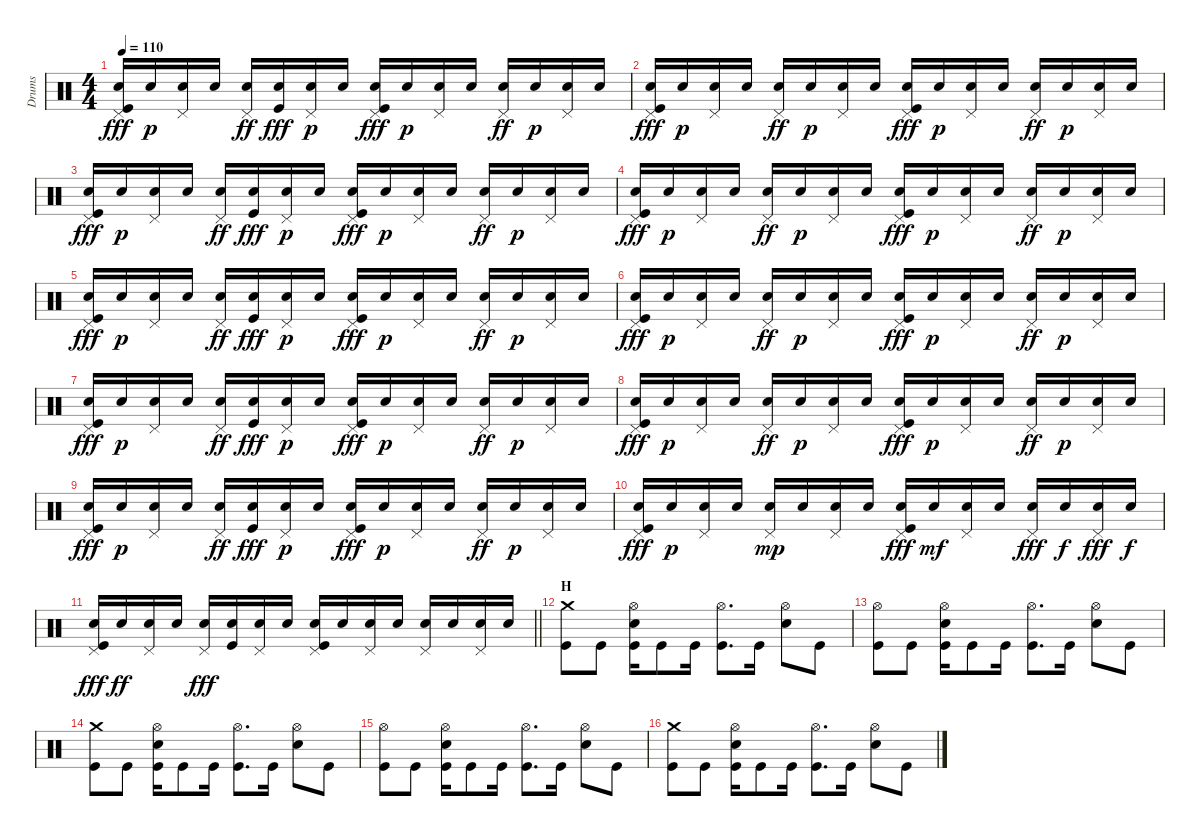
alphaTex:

\track ("Drums" "Drums") {instrument percussion}
\staff {score}
\articulation defaults
\ts (4 4)
\tempo 110
\clef neutral
\ks c
("Pedal Hi-Hat (hit)" "Electric Snare (hit)" "Kick (hit)").16{dy fff} "Electric Snare (hit)".16{dy p} ("Pedal Hi-Hat (hit)" "Electric Snare (hit)").16 "Electric Snare (hit)".16 ("Pedal Hi-Hat (hit)" "Electric Snare (hit)").16{dy ff} ("Electric Snare (hit)" "Kick (hit)").16{dy fff} ("Pedal Hi-Hat (hit)" "Electric Snare (hit)").16{dy p} "Electric Snare (hit)".16 ("Pedal Hi-Hat (hit)" "Electric Snare (hit)" "Kick (hit)").16{dy fff} "Electric Snare (hit)".16{dy p} ("Pedal Hi-Hat (hit)" "Electric Snare (hit)").16 "Electric Snare (hit)".16 ("Pedal Hi-Hat (hit)" "Electric Snare (hit)").16{dy ff} "Electric Snare (hit)".16{dy p} ("Pedal Hi-Hat (hit)" "Electric Snare (hit)").16 "Electric Snare (hit)".16 |
("Pedal Hi-Hat (hit)" "Electric Snare (hit)" "Kick (hit)").16{dy fff} "Electric Snare (hit)".16{dy p} ("Pedal Hi-Hat (hit)" "Electric Snare (hit)").16 "Electric Snare (hit)".16 ("Pedal Hi-Hat (hit)" "Electric Snare (hit)").16{dy ff} "Electric Snare (hit)".16{dy p} ("Pedal Hi-Hat (hit)" "Electric Snare (hit)").16 "Electric Snare (hit)".16 ("Pedal Hi-Hat (hit)" "Electric Snare (hit)" "Kick (hit)").16{dy fff} "Electric Snare (hit)".16{dy p} ("Pedal Hi-Hat (hit)" "Electric Snare (hit)").16 "Electric Snare (hit)".16 ("Pedal Hi-Hat (hit)" "Electric Snare (hit)").16{dy ff} "Electric Snare (hit)".16{dy p} ("Pedal Hi-Hat (hit)" "Electric Snare (hit)").16 "Electric Snare (hit)".16 |
("Pedal Hi-Hat (hit)" "Electric Snare (hit)" "Kick (hit)").16{dy fff} "Electric Snare (hit)".16{dy p} ("Pedal Hi-Hat (hit)" "Electric Snare (hit)").16 "Electric Snare (hit)".16 ("Pedal Hi-Hat (hit)" "Electric Snare (hit)").16{dy ff} ("Electric Snare (hit)" "Kick (hit)").16{dy fff} ("Pedal Hi-Hat (hit)" "Electric Snare (hit)").16{dy p} "Electric Snare (hit)".16 ("Pedal Hi-Hat (hit)" "Electric Snare (hit)" "Kick (hit)").16{dy fff} "Electric Snare (hit)".16{dy p} ("Pedal Hi-Hat (hit)" "Electric Snare (hit)").16 "Electric Snare (hit)".16 ("Pedal Hi-Hat (hit)" "Electric Snare (hit)").16{dy ff} "Electric Snare (hit)".16{dy p} ("Pedal Hi-Hat (hit)" "Electric Snare (hit)").16 "Electric Snare (hit)".16 |
("Pedal Hi-Hat (hit)" "Electric Snare (hit)" "Kick (hit)").16{dy fff} "Electric Snare (hit)".16{dy p} ("Pedal Hi-Hat (hit)" "Electric Snare (hit)").16 "Electric Snare (hit)".16 ("Pedal Hi-Hat (hit)" "Electric Snare (hit)").16{dy ff} "Electric Snare (hit)".16{dy p} ("Pedal Hi-Hat (hit)" "Electric Snare (hit)").16 "Electric Snare (hit)".16 ("Pedal Hi-Hat (hit)" "Electric Snare (hit)" "Kick (hit)").16{dy fff} "Electric Snare (hit)".16{dy p} ("Pedal Hi-Hat (hit)" "Electric Snare (hit)").16 "Electric Snare (hit)".16 ("Pedal Hi-Hat (hit)" "Electric Snare (hit)").16{dy ff} "Electric Snare (hit)".16{dy p} ("Pedal Hi-Hat (hit)" "Electric Snare (hit)").16 "Electric Snare (hit)".16 |
("Pedal Hi-Hat (hit)" "Electric Snare (hit)" "Kick (hit)").16{dy fff} "Electric Snare (hit)".16{dy p} ("Pedal Hi-Hat (hit)" "Electric Snare (hit)").16 "Electric Snare (hit)".16 ("Pedal Hi-Hat (hit)" "Electric Snare (hit)").16{dy ff} ("Electric Snare (hit)" "Kick (hit)").16{dy fff} ("Pedal Hi-Hat (hit)" "Electric Snare (hit)").16{dy p} "Electric Snare (hit)".16 ("Pedal Hi-Hat (hit)" "Electric Snare (hit)" "Kick (hit)").16{dy fff} "Electric Snare (hit)".16{dy p} ("Pedal Hi-Hat (hit)" "Electric Snare (hit)").16 "Electric Snare (hit)".16 ("Pedal Hi-Hat (hit)" "Electric Snare (hit)").16{dy ff} "Electric Snare (hit)".16{dy p} ("Pedal Hi-Hat (hit)" "Electric Snare (hit)").16 "Electric Snare (hit)".16 |
("Pedal Hi-Hat (hit)" "Electric Snare (hit)" "Kick (hit)").16{dy fff} "Electric Snare (hit)".16{dy p} ("Pedal Hi-Hat (hit)" "Electric Snare (hit)").16 "Electric Snare (hit)".16 ("Pedal Hi-Hat (hit)" "Electric Snare (hit)").16{dy ff} "Electric Snare (hit)".16{dy p} ("Pedal Hi-Hat (hit)" "Electric Snare (hit)").16 "Electric Snare (hit)".16 ("Pedal Hi-Hat (hit)" "Electric Snare (hit)" "Kick (hit)").16{dy fff} "Electric Snare (hit)".16{dy p} ("Pedal Hi-Hat (hit)" "Electric Snare (hit)").16 "Electric Snare (hit)".16 ("Pedal Hi-Hat (hit)" "Electric Snare (hit)").16{dy ff} "Electric Snare (hit)".16{dy p} ("Pedal Hi-Hat (hit)" "Electric Snare (hit)").16 "Electric Snare (hit)".16 |
("Pedal Hi-Hat (hit)" "Electric Snare (hit)" "Kick (hit)").16{dy fff} "Electric Snare (hit)".16{dy p} ("Pedal Hi-Hat (hit)" "Electric Snare (hit)").16 "Electric Snare (hit)".16 ("Pedal Hi-Hat (hit)" "Electric Snare (hit)").16{dy ff} ("Electric Snare (hit)" "Kick (hit)").16{dy fff} ("Pedal Hi-Hat (hit)" "Electric Snare (hit)").16{dy p} "Electric Snare (hit)".16 ("Pedal Hi-Hat (hit)" "Electric Snare (hit)" "Kick (hit)").16{dy fff} "Electric Snare (hit)".16{dy p} ("Pedal Hi-Hat (hit)" "Electric Snare (hit)").16 "Electric Snare (hit)".16 ("Pedal Hi-Hat (hit)" "Electric Snare (hit)").16{dy ff} "Electric Snare (hit)".16{dy p} ("Pedal Hi-Hat (hit)" "Electric Snare (hit)").16 "Electric Snare (hit)".16 |
("Pedal Hi-Hat (hit)" "Electric Snare (hit)" "Kick (hit)").16{dy fff} "Electric Snare (hit)".16{dy p} ("Pedal Hi-Hat (hit)" "Electric Snare (hit)").16 "Electric Snare (hit)".16 ("Pedal Hi-Hat (hit)" "Electric Snare (hit)").16{dy ff} "Electric Snare (hit)".16{dy p} ("Pedal Hi-Hat (hit)" "Electric Snare (hit)").16 "Electric Snare (hit)".16 ("Pedal Hi-Hat (hit)" "Electric Snare (hit)" "Kick (hit)").16{dy fff} "Electric Snare (hit)".16{dy p} ("Pedal Hi-Hat (hit)" "Electric Snare (hit)").16 "Electric Snare (hit)".16 ("Pedal Hi-Hat (hit)" "Electric Snare (hit)").16{dy ff} "Electric Snare (hit)".16{dy p} ("Pedal Hi-Hat (hit)" "Electric Snare (hit)").16 "Electric Snare (hit)".16 |
("Pedal Hi-Hat (hit)" "Electric Snare (hit)" "Kick (hit)").16{dy fff} "Electric Snare (hit)".16{dy p} ("Pedal Hi-Hat (hit)" "Electric Snare (hit)").16 "Electric Snare (hit)".16 ("Pedal Hi-Hat (hit)" "Electric Snare (hit)").16{dy ff} ("Electric Snare (hit)" "Kick (hit)").16{dy fff} ("Pedal Hi-Hat (hit)" "Electric Snare (hit)").16{dy p} "Electric Snare (hit)".16 ("Pedal Hi-Hat (hit)" "Electric Snare (hit)" "Kick (hit)").16{dy fff} "Electric Snare (hit)".16{dy p} ("Pedal Hi-Hat (hit)" "Electric Snare (hit)").16 "Electric Snare (hit)".16 ("Pedal Hi-Hat (hit)" "Electric Snare (hit)").16{dy ff} "Electric Snare (hit)".16{dy p} ("Pedal Hi-Hat (hit)" "Electric Snare (hit)").16 "Electric Snare (hit)".16 |
("Pedal Hi-Hat (hit)" "Electric Snare (hit)" "Kick (hit)").16{dy fff} "Electric Snare (hit)".16{dy p} ("Pedal Hi-Hat (hit)" "Electric Snare (hit)").16 "Electric Snare (hit)".16 ("Pedal Hi-Hat (hit)" "Electric Snare (hit)").16{dy mp} "Electric Snare (hit)".16 ("Pedal Hi-Hat (hit)" "Electric Snare (hit)").16 "Electric Snare (hit)".16 ("Pedal Hi-Hat (hit)" "Electric Snare (hit)" "Kick (hit)").16{dy fff} "Electric Snare (hit)".16{dy mf} ("Pedal Hi-Hat (hit)" "Electric Snare (hit)").16 "Electric Snare (hit)".16 ("Pedal Hi-Hat (hit)" "Electric Snare (hit)").16{dy fff} "Electric Snare (hit)".16{dy f} ("Pedal Hi-Hat (hit)" "Electric Snare (hit)").16{dy fff} "Electric Snare (hit)".16{dy f} |
\barLineRight lightlight
("Pedal Hi-Hat (hit)" "Electric Snare (hit)" "Kick (hit)").16{dy fff} "Electric Snare (hit)".16{dy ff} ("Pedal Hi-Hat (hit)" "Electric Snare (hit)").16 "Electric Snare (hit)".16 ("Pedal Hi-Hat (hit)" "Electric Snare (hit)").16{dy fff} ("Electric Snare (hit)" "Kick (hit)").16 ("Pedal Hi-Hat (hit)" "Electric Snare (hit)").16 "Electric Snare (hit)".16 ("Pedal Hi-Hat (hit)" "Electric Snare (hit)" "Kick (hit)").16 "Electric Snare (hit)".16 ("Pedal Hi-Hat (hit)" "Electric Snare (hit)").16 "Electric Snare (hit)".16 ("Pedal Hi-Hat (hit)" "Electric Snare (hit)").16 "Electric Snare (hit)".16 ("Pedal Hi-Hat (hit)" "Electric Snare (hit)").16 "Electric Snare (hit)".16 |
\section ("" "H")
("Crash medium (hit)" "Kick (hit)").8 "Kick (hit)".8 ("Hi-Hat (open)" "Electric Snare (hit)" "Kick (hit)").16 "Kick (hit)".8 "Kick (hit)".16 ("Hi-Hat (open)" "Kick (hit)").8{d} "Kick (hit)".16 ("Hi-Hat (open)" "Electric Snare (hit)").8 "Kick (hit)".8 |
("Hi-Hat (open)" "Kick (hit)").8 "Kick (hit)".8 ("Hi-Hat (open)" "Electric Snare (hit)" "Kick (hit)").16 "Kick (hit)".8 "Kick (hit)".16 ("Hi-Hat (open)" "Kick (hit)").8{d} "Kick (hit)".16 ("Hi-Hat (open)" "Electric Snare (hit)").8 "Kick (hit)".8 |
("Crash medium (hit)" "Kick (hit)").8 "Kick (hit)".8 ("Hi-Hat (open)" "Electric Snare (hit)" "Kick (hit)").16 "Kick (hit)".8 "Kick (hit)".16 ("Hi-Hat (open)" "Kick (hit)").8{d} "Kick (hit)".16 ("Hi-Hat (open)" "Electric Snare (hit)").8 "Kick (hit)".8 |
("Hi-Hat (open)" "Kick (hit)").8 "Kick (hit)".8 ("Hi-Hat (open)" "Electric Snare (hit)" "Kick (hit)").16 "Kick (hit)".8 "Kick (hit)".16 ("Hi-Hat (open)" "Kick (hit)").8{d} "Kick (hit)".16 ("Hi-Hat (open)" "Electric Snare (hit)").8 "Kick (hit)".8 |
("Crash medium (hit)" "Kick (hit)").8 "Kick (hit)".8 ("Hi-Hat (open)" "Electric Snare (hit)" "Kick (hit)").16 "Kick (hit)".8 "Kick (hit)".16 ("Hi-Hat (open)" "Kick (hit)").8{d} "Kick (hit)".16 ("Hi-Hat (open)" "Electric Snare (hit)").8 "Kick (hit)".8
